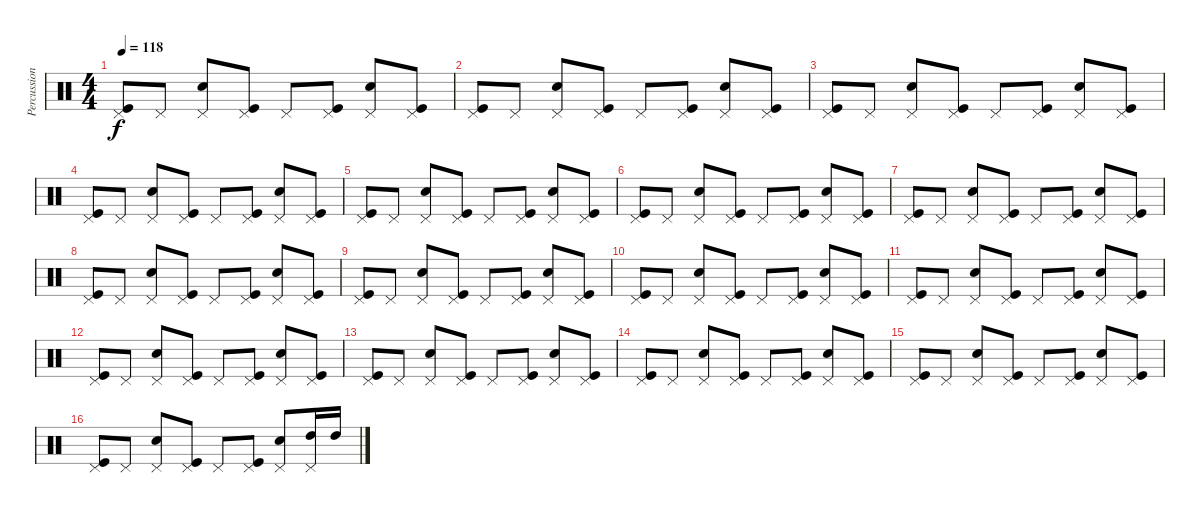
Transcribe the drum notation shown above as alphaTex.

\track ("Percussions" "Percussion") {instrument percussion}
\staff {score}
\articulation defaults
\ts (4 4)
\tempo 118
\clef neutral
\ks c
("Pedal Hi-Hat (hit)" "Kick (hit)").8{dy f} "Pedal Hi-Hat (hit)".8 ("Pedal Hi-Hat (hit)" "Snare (hit) 2").8 ("Pedal Hi-Hat (hit)" "Kick (hit)").8 "Pedal Hi-Hat (hit)".8 ("Pedal Hi-Hat (hit)" "Kick (hit)").8 ("Pedal Hi-Hat (hit)" "Snare (hit) 2").8 ("Pedal Hi-Hat (hit)" "Kick (hit)").8 |
("Pedal Hi-Hat (hit)" "Kick (hit)").8 "Pedal Hi-Hat (hit)".8 ("Pedal Hi-Hat (hit)" "Snare (hit) 2").8 ("Pedal Hi-Hat (hit)" "Kick (hit)").8 "Pedal Hi-Hat (hit)".8 ("Pedal Hi-Hat (hit)" "Kick (hit)").8 ("Pedal Hi-Hat (hit)" "Snare (hit) 2").8 ("Pedal Hi-Hat (hit)" "Kick (hit)").8 |
("Pedal Hi-Hat (hit)" "Kick (hit)").8 "Pedal Hi-Hat (hit)".8 ("Pedal Hi-Hat (hit)" "Snare (hit) 2").8 ("Pedal Hi-Hat (hit)" "Kick (hit)").8 "Pedal Hi-Hat (hit)".8 ("Pedal Hi-Hat (hit)" "Kick (hit)").8 ("Pedal Hi-Hat (hit)" "Snare (hit) 2").8 ("Pedal Hi-Hat (hit)" "Kick (hit)").8 |
("Pedal Hi-Hat (hit)" "Kick (hit)").8 "Pedal Hi-Hat (hit)".8 ("Pedal Hi-Hat (hit)" "Snare (hit) 2").8 ("Pedal Hi-Hat (hit)" "Kick (hit)").8 "Pedal Hi-Hat (hit)".8 ("Pedal Hi-Hat (hit)" "Kick (hit)").8 ("Pedal Hi-Hat (hit)" "Snare (hit) 2").8 ("Pedal Hi-Hat (hit)" "Kick (hit)").8 |
("Pedal Hi-Hat (hit)" "Kick (hit)").8 "Pedal Hi-Hat (hit)".8 ("Pedal Hi-Hat (hit)" "Snare (hit) 2").8 ("Pedal Hi-Hat (hit)" "Kick (hit)").8 "Pedal Hi-Hat (hit)".8 ("Pedal Hi-Hat (hit)" "Kick (hit)").8 ("Pedal Hi-Hat (hit)" "Snare (hit) 2").8 ("Pedal Hi-Hat (hit)" "Kick (hit)").8 |
("Pedal Hi-Hat (hit)" "Kick (hit)").8 "Pedal Hi-Hat (hit)".8 ("Pedal Hi-Hat (hit)" "Snare (hit) 2").8 ("Pedal Hi-Hat (hit)" "Kick (hit)").8 "Pedal Hi-Hat (hit)".8 ("Pedal Hi-Hat (hit)" "Kick (hit)").8 ("Pedal Hi-Hat (hit)" "Snare (hit) 2").8 ("Pedal Hi-Hat (hit)" "Kick (hit)").8 |
("Pedal Hi-Hat (hit)" "Kick (hit)").8 "Pedal Hi-Hat (hit)".8 ("Pedal Hi-Hat (hit)" "Snare (hit) 2").8 ("Pedal Hi-Hat (hit)" "Kick (hit)").8 "Pedal Hi-Hat (hit)".8 ("Pedal Hi-Hat (hit)" "Kick (hit)").8 ("Pedal Hi-Hat (hit)" "Snare (hit) 2").8 ("Pedal Hi-Hat (hit)" "Kick (hit)").8 |
("Pedal Hi-Hat (hit)" "Kick (hit)").8 "Pedal Hi-Hat (hit)".8 ("Pedal Hi-Hat (hit)" "Snare (hit) 2").8 ("Pedal Hi-Hat (hit)" "Kick (hit)").8 "Pedal Hi-Hat (hit)".8 ("Pedal Hi-Hat (hit)" "Kick (hit)").8 ("Pedal Hi-Hat (hit)" "Snare (hit) 2").8 ("Pedal Hi-Hat (hit)" "Kick (hit)").8 |
("Pedal Hi-Hat (hit)" "Kick (hit)").8 "Pedal Hi-Hat (hit)".8 ("Pedal Hi-Hat (hit)" "Snare (hit) 2").8 ("Pedal Hi-Hat (hit)" "Kick (hit)").8 "Pedal Hi-Hat (hit)".8 ("Pedal Hi-Hat (hit)" "Kick (hit)").8 ("Pedal Hi-Hat (hit)" "Snare (hit) 2").8 ("Pedal Hi-Hat (hit)" "Kick (hit)").8 |
("Pedal Hi-Hat (hit)" "Kick (hit)").8 "Pedal Hi-Hat (hit)".8 ("Pedal Hi-Hat (hit)" "Snare (hit) 2").8 ("Pedal Hi-Hat (hit)" "Kick (hit)").8 "Pedal Hi-Hat (hit)".8 ("Pedal Hi-Hat (hit)" "Kick (hit)").8 ("Pedal Hi-Hat (hit)" "Snare (hit) 2").8 ("Pedal Hi-Hat (hit)" "Kick (hit)").8 |
("Pedal Hi-Hat (hit)" "Kick (hit)").8 "Pedal Hi-Hat (hit)".8 ("Pedal Hi-Hat (hit)" "Snare (hit) 2").8 ("Pedal Hi-Hat (hit)" "Kick (hit)").8 "Pedal Hi-Hat (hit)".8 ("Pedal Hi-Hat (hit)" "Kick (hit)").8 ("Pedal Hi-Hat (hit)" "Snare (hit) 2").8 ("Pedal Hi-Hat (hit)" "Kick (hit)").8 |
("Pedal Hi-Hat (hit)" "Kick (hit)").8 "Pedal Hi-Hat (hit)".8 ("Pedal Hi-Hat (hit)" "Snare (hit) 2").8 ("Pedal Hi-Hat (hit)" "Kick (hit)").8 "Pedal Hi-Hat (hit)".8 ("Pedal Hi-Hat (hit)" "Kick (hit)").8 ("Pedal Hi-Hat (hit)" "Snare (hit) 2").8 ("Pedal Hi-Hat (hit)" "Kick (hit)").8 |
("Pedal Hi-Hat (hit)" "Kick (hit)").8 "Pedal Hi-Hat (hit)".8 ("Pedal Hi-Hat (hit)" "Snare (hit) 2").8 ("Pedal Hi-Hat (hit)" "Kick (hit)").8 "Pedal Hi-Hat (hit)".8 ("Pedal Hi-Hat (hit)" "Kick (hit)").8 ("Pedal Hi-Hat (hit)" "Snare (hit) 2").8 ("Pedal Hi-Hat (hit)" "Kick (hit)").8 |
("Pedal Hi-Hat (hit)" "Kick (hit)").8 "Pedal Hi-Hat (hit)".8 ("Pedal Hi-Hat (hit)" "Snare (hit) 2").8 ("Pedal Hi-Hat (hit)" "Kick (hit)").8 "Pedal Hi-Hat (hit)".8 ("Pedal Hi-Hat (hit)" "Kick (hit)").8 ("Pedal Hi-Hat (hit)" "Snare (hit) 2").8 ("Pedal Hi-Hat (hit)" "Kick (hit)").8 |
("Pedal Hi-Hat (hit)" "Kick (hit)").8 "Pedal Hi-Hat (hit)".8 ("Pedal Hi-Hat (hit)" "Snare (hit) 2").8 ("Pedal Hi-Hat (hit)" "Kick (hit)").8 "Pedal Hi-Hat (hit)".8 ("Pedal Hi-Hat (hit)" "Kick (hit)").8 ("Pedal Hi-Hat (hit)" "Snare (hit) 2").8 ("Pedal Hi-Hat (hit)" "Kick (hit)").8 |
("Pedal Hi-Hat (hit)" "Kick (hit)").8 "Pedal Hi-Hat (hit)".8 ("Pedal Hi-Hat (hit)" "Snare (hit) 2").8 ("Pedal Hi-Hat (hit)" "Kick (hit)").8 "Pedal Hi-Hat (hit)".8 ("Pedal Hi-Hat (hit)" "Kick (hit)").8 ("Pedal Hi-Hat (hit)" "Snare (hit) 2").8 ("Pedal Hi-Hat (hit)" "High Tom (hit)").16 "High Tom (hit)".16
